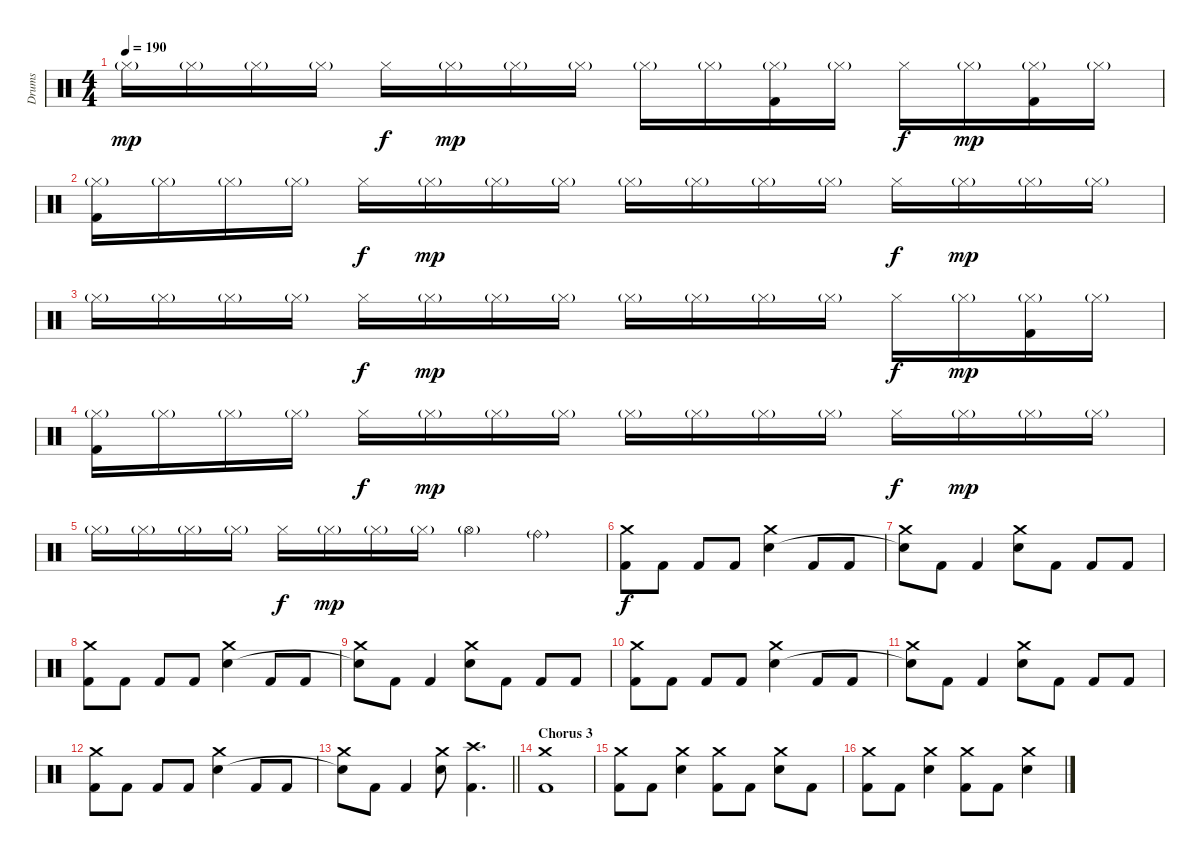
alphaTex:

\track ("Drums" "Drums") {instrument percussion}
\staff {score}
\articulation defaults
\ts (4 4)
\tempo 190
\clef neutral
\ks c "Hi-Hat (closed)"{g}.16{dy mp} "Hi-Hat (closed)"{g}.16 "Hi-Hat (closed)"{g}.16 "Hi-Hat (closed)"{g}.16 "Hi-Hat (closed)".16{dy f} "Hi-Hat (closed)"{g}.16{dy mp} "Hi-Hat (closed)"{g}.16 "Hi-Hat (closed)"{g}.16 "Hi-Hat (closed)"{g}.16 "Hi-Hat (closed)"{g}.16
("Hi-Hat (closed)"{g} "Kick (hit) 2").16 "Hi-Hat (closed)"{g}.16 "Hi-Hat (closed)".16{dy f} "Hi-Hat (closed)"{g}.16{dy mp} ("Hi-Hat (closed)"{g} "Kick (hit) 2").16 "Hi-Hat (closed)"{g}.16 |
("Hi-Hat (closed)"{g} "Kick (hit) 2").16 "Hi-Hat (closed)"{g}.16 "Hi-Hat (closed)"{g}.16 "Hi-Hat (closed)"{g}.16 "Hi-Hat (closed)".16{dy f} "Hi-Hat (closed)"{g}.16{dy mp} "Hi-Hat (closed)"{g}.16 "Hi-Hat (closed)"{g}.16 "Hi-Hat (closed)"{g}.16 "Hi-Hat (closed)"{g}.16 "Hi-Hat (closed)"{g}.16 "Hi-Hat (closed)"{g}.16 "Hi-Hat (closed)".16{dy f} "Hi-Hat (closed)"{g}.16{dy mp} "Hi-Hat (closed)"{g}.16 "Hi-Hat (closed)"{g}.16 |
"Hi-Hat (closed)"{g}.16 "Hi-Hat (closed)"{g}.16 "Hi-Hat (closed)"{g}.16 "Hi-Hat (closed)"{g}.16 "Hi-Hat (closed)".16{dy f} "Hi-Hat (closed)"{g}.16{dy mp} "Hi-Hat (closed)"{g}.16 "Hi-Hat (closed)"{g}.16 "Hi-Hat (closed)"{g}.16 "Hi-Hat (closed)"{g}.16 "Hi-Hat (closed)"{g}.16 "Hi-Hat (closed)"{g}.16 "Hi-Hat (closed)".16{dy f} "Hi-Hat (closed)"{g}.16{dy mp} ("Hi-Hat (closed)"{g} "Kick (hit) 2").16 "Hi-Hat (closed)"{g}.16 |
("Hi-Hat (closed)"{g} "Kick (hit) 2").16 "Hi-Hat (closed)"{g}.16 "Hi-Hat (closed)"{g}.16 "Hi-Hat (closed)"{g}.16 "Hi-Hat (closed)".16{dy f} "Hi-Hat (closed)"{g}.16{dy mp} "Hi-Hat (closed)"{g}.16 "Hi-Hat (closed)"{g}.16 "Hi-Hat (closed)"{g}.16 "Hi-Hat (closed)"{g}.16 "Hi-Hat (closed)"{g}.16 "Hi-Hat (closed)"{g}.16 "Hi-Hat (closed)".16{dy f} "Hi-Hat (closed)"{g}.16{dy mp} "Hi-Hat (closed)"{g}.16 "Hi-Hat (closed)"{g}.16 |
"Hi-Hat (closed)"{g}.16 "Hi-Hat (closed)"{g}.16 "Hi-Hat (closed)"{g}.16 "Hi-Hat (closed)"{g}.16 "Hi-Hat (closed)".16{dy f} "Hi-Hat (closed)"{g}.16{dy mp} "Hi-Hat (closed)"{g}.16 "Hi-Hat (closed)"{g}.16 "Hi-Hat (open)"{g}.4 "Ride (bell)"{g}.4 |
("Crash medium (hit)" "Kick (hit) 2").8{dy f} "Kick (hit) 2".8 "Kick (hit) 2".8 "Kick (hit) 2".8 ("Crash medium (hit)" "Electric Snare (hit)").4 "Kick (hit) 2".8 "Kick (hit) 2".8 |
("Crash medium (hit)" "Snare (hit)"{t}).8 "Kick (hit) 2".8 "Kick (hit) 2".4 ("Crash medium (hit)" "Electric Snare (hit)").8 "Kick (hit) 2".8 "Kick (hit) 2".8 "Kick (hit) 2".8 |
("Crash medium (hit)" "Kick (hit) 2").8 "Kick (hit) 2".8 "Kick (hit) 2".8 "Kick (hit) 2".8 ("Crash medium (hit)" "Electric Snare (hit)").4 "Kick (hit) 2".8 "Kick (hit) 2".8 |
("Crash medium (hit)" "Snare (hit)"{t}).8 "Kick (hit) 2".8 "Kick (hit) 2".4 ("Crash medium (hit)" "Electric Snare (hit)").8 "Kick (hit) 2".8 "Kick (hit) 2".8 "Kick (hit) 2".8 |
("Crash medium (hit)" "Kick (hit) 2").8 "Kick (hit) 2".8 "Kick (hit) 2".8 "Kick (hit) 2".8 ("Crash medium (hit)" "Electric Snare (hit)").4 "Kick (hit) 2".8 "Kick (hit) 2".8 |
("Crash medium (hit)" "Snare (hit)"{t}).8 "Kick (hit) 2".8 "Kick (hit) 2".4 ("Crash medium (hit)" "Electric Snare (hit)").8 "Kick (hit) 2".8 "Kick (hit) 2".8 "Kick (hit) 2".8 |
("Crash medium (hit)" "Kick (hit) 2").8 "Kick (hit) 2".8 "Kick (hit) 2".8 "Kick (hit) 2".8 ("Crash medium (hit)" "Electric Snare (hit)").4 "Kick (hit) 2".8 "Kick (hit) 2".8 |
\barLineRight lightlight
("Crash medium (hit)" "Snare (hit)"{t}).8 "Kick (hit) 2".8 "Kick (hit) 2".4 ("Crash medium (hit)" "Electric Snare (hit)").8 ("Crash high (hit)" "Kick (hit) 2").4{d} |
\section ("" "Chorus 3")
("Crash medium (hit)" "Kick (hit) 2").1 |
("Crash medium (hit)" "Kick (hit) 2").8 "Kick (hit) 2".8 ("Crash medium (hit)" "Electric Snare (hit)").4 ("Crash medium (hit)" "Kick (hit) 2").8 "Kick (hit) 2".8 ("Crash medium (hit)" "Electric Snare (hit)").8 "Kick (hit) 2".8 |
("Crash medium (hit)" "Kick (hit) 2").8 "Kick (hit) 2".8 ("Crash medium (hit)" "Electric Snare (hit)").4 ("Crash medium (hit)" "Kick (hit) 2").8 "Kick (hit) 2".8 ("Crash medium (hit)" "Electric Snare (hit)").4
